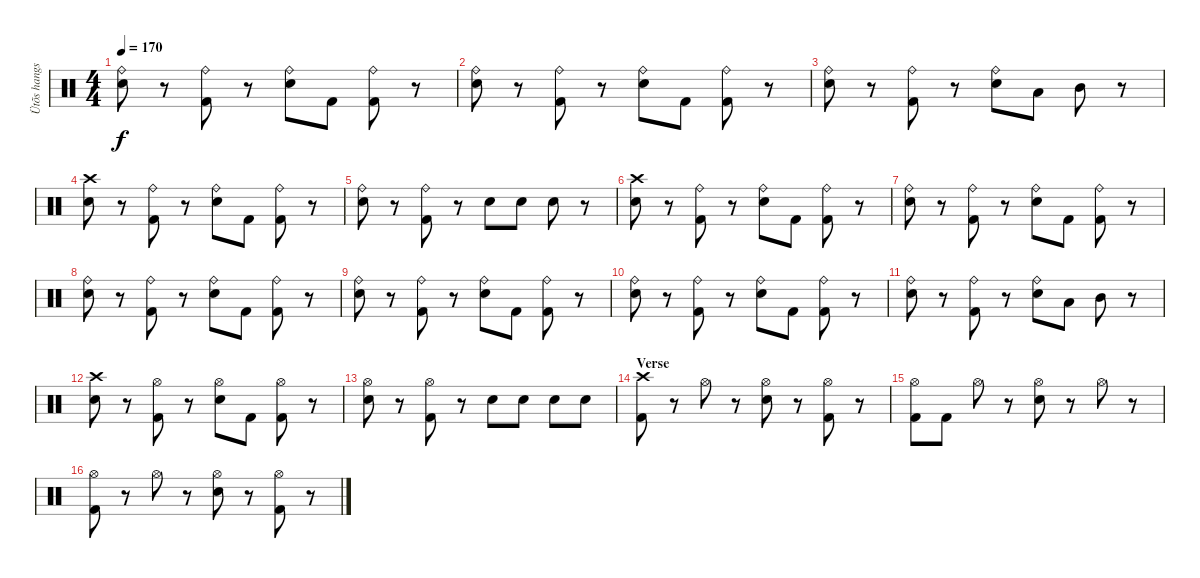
\track ("Ütõs hangszer" "Ütõs hangs") {instrument percussion}
\staff {score}
\articulation defaults
\ts (4 4)
\tempo 170
\clef neutral
\ks c
("Ride (bell)" "Snare (hit) 2").8{dy f} r.8 ("Ride (bell)" "Kick (hit) 2").8 r.8 ("Ride (bell)" "Snare (hit) 2").8 "Kick (hit) 2".8 ("Ride (bell)" "Kick (hit) 2").8 r.8 |
("Ride (bell)" "Snare (hit) 2").8 r.8 ("Ride (bell)" "Kick (hit) 2").8 r.8 ("Ride (bell)" "Snare (hit) 2").8 "Kick (hit) 2".8 ("Ride (bell)" "Kick (hit) 2").8 r.8 |
("Ride (bell)" "Snare (hit) 2").8 r.8 ("Ride (bell)" "Kick (hit) 2").8 r.8 ("Ride (bell)" "Snare (hit) 2").8 "Low Tom (hit)".8 "Mid Tom (hit)".8 r.8 |
("Crash high (hit)" "Snare (hit) 2").8 r.8 ("Ride (bell)" "Kick (hit) 2").8 r.8 ("Ride (bell)" "Snare (hit) 2").8 "Kick (hit) 2".8 ("Ride (bell)" "Kick (hit) 2").8 r.8 |
("Ride (bell)" "Snare (hit) 2").8 r.8 ("Ride (bell)" "Kick (hit) 2").8 r.8 "Snare (hit) 2".8 "Snare (hit) 2".8 "Snare (hit) 2".8 r.8 |
("Crash high (hit)" "Snare (hit) 2").8 r.8 ("Ride (bell)" "Kick (hit) 2").8 r.8 ("Ride (bell)" "Snare (hit) 2").8 "Kick (hit) 2".8 ("Ride (bell)" "Kick (hit) 2").8 r.8 |
("Ride (bell)" "Snare (hit) 2").8 r.8 ("Ride (bell)" "Kick (hit) 2").8 r.8 ("Ride (bell)" "Snare (hit) 2").8 "Kick (hit) 2".8 ("Ride (bell)" "Kick (hit) 2").8 r.8 |
("Ride (bell)" "Snare (hit) 2").8 r.8 ("Ride (bell)" "Kick (hit) 2").8 r.8 ("Ride (bell)" "Snare (hit) 2").8 "Kick (hit) 2".8 ("Ride (bell)" "Kick (hit) 2").8 r.8 |
("Ride (bell)" "Snare (hit) 2").8 r.8 ("Ride (bell)" "Kick (hit) 2").8 r.8 ("Ride (bell)" "Snare (hit) 2").8 "Kick (hit) 2".8 ("Ride (bell)" "Kick (hit) 2").8 r.8 |
("Ride (bell)" "Snare (hit) 2").8 r.8 ("Ride (bell)" "Kick (hit) 2").8 r.8 ("Ride (bell)" "Snare (hit) 2").8 "Kick (hit) 2".8 ("Ride (bell)" "Kick (hit) 2").8 r.8 |
("Ride (bell)" "Snare (hit) 2").8 r.8 ("Ride (bell)" "Kick (hit) 2").8 r.8 ("Ride (bell)" "Snare (hit) 2").8 "Low Tom (hit)".8 "Mid Tom (hit)".8 r.8 |
("Crash high (hit)" "Snare (hit) 2").8 r.8 ("Hi-Hat (open)" "Kick (hit) 2").8 r.8 ("Hi-Hat (open)" "Snare (hit) 2").8 "Kick (hit) 2".8 ("Hi-Hat (open)" "Kick (hit) 2").8 r.8 |
("Hi-Hat (open)" "Snare (hit) 2").8 r.8 ("Hi-Hat (open)" "Kick (hit) 2").8 r.8 "Snare (hit) 2".8 "Snare (hit) 2".8 "Snare (hit) 2".8 "Snare (hit) 2".8 |
\section ("" "Verse")
("Crash high (hit)" "Kick (hit) 2").8 r.8 "Hi-Hat (open)".8 r.8 ("Hi-Hat (open)" "Snare (hit) 2").8 r.8 ("Hi-Hat (open)" "Kick (hit) 2").8 r.8 |
("Hi-Hat (open)" "Kick (hit) 2").8 "Kick (hit) 2".8 "Hi-Hat (open)".8 r.8 ("Hi-Hat (open)" "Snare (hit) 2").8 r.8 "Hi-Hat (open)".8 r.8 |
("Hi-Hat (open)" "Kick (hit) 2").8 r.8 "Hi-Hat (open)".8 r.8 ("Hi-Hat (open)" "Snare (hit) 2").8 r.8 ("Hi-Hat (open)" "Kick (hit) 2").8 r.8
